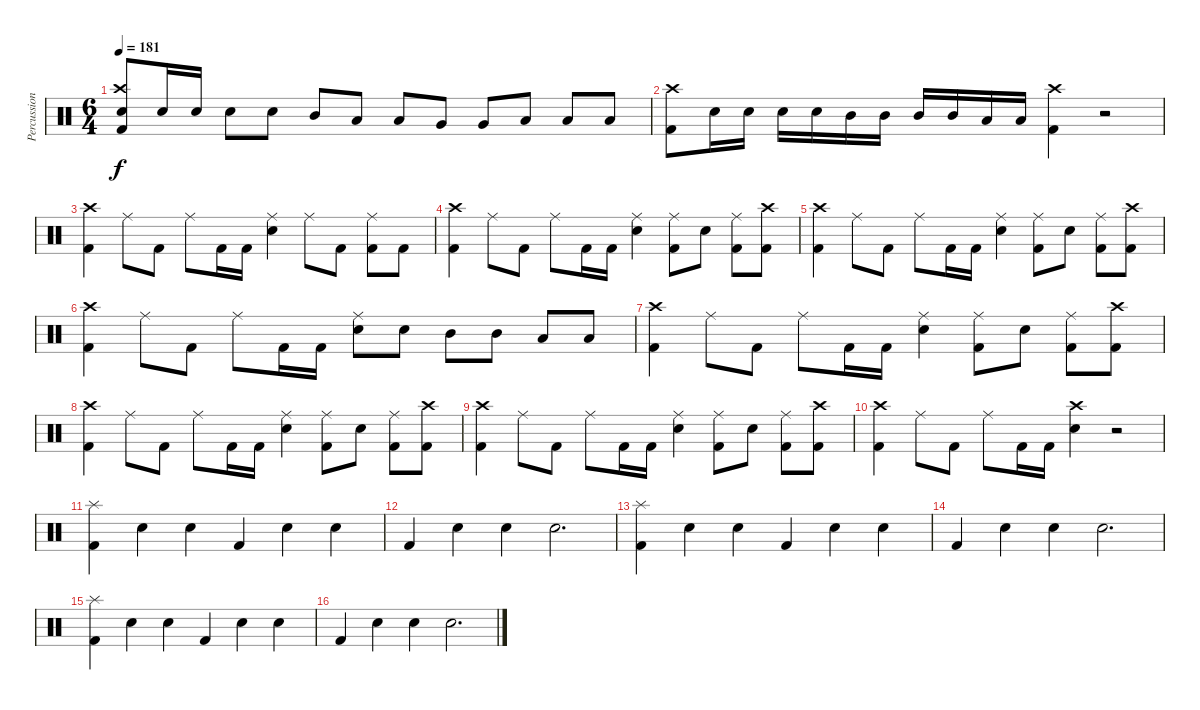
\track ("Percussion" "Percussion") {instrument percussion}
\staff {score}
\articulation defaults
\ts (6 4)
\tempo 181
\clef neutral
\ks c
("Kick (hit) 2" "Crash high (hit)" "Electric Snare (hit)").8{dy f} "Electric Snare (hit)".16 "Electric Snare (hit)".16 "Electric Snare (hit)".8 "Electric Snare (hit)".8 "Mid Tom (hit)".8 "Low Tom (hit)".8 "Low Tom (hit)".8 "Very Low Tom (hit)".8 "Very Low Tom (hit)".8 "Low Floor Tom (hit)".8 "Low Floor Tom (hit)".8 "Low Floor Tom (hit)".8 |
("Kick (hit) 2" "Crash high (hit)").8 "Electric Snare (hit)".16 "Electric Snare (hit)".16 "Electric Snare (hit)".16 "Electric Snare (hit)".16 "Mid Tom (hit)".16 "Mid Tom (hit)".16 "Mid Tom (hit)".16 "Mid Tom (hit)".16 "Low Tom (hit)".16 "Low Tom (hit)".16 ("Kick (hit) 2" "Crash high (hit)").4 r.2 |
("Kick (hit) 2" "Crash high (hit)").4 "Ride (middle)".8 "Kick (hit) 2".8 "Ride (middle)".8 "Kick (hit) 2".16 "Kick (hit) 2".16 ("Electric Snare (hit)" "Ride (middle)").4 "Ride (middle)".8 "Kick (hit) 2".8 ("Kick (hit) 2" "Ride (middle)").8 "Kick (hit) 2".8 |
("Kick (hit) 2" "Crash high (hit)").4 "Ride (middle)".8 "Kick (hit) 2".8 "Ride (middle)".8 "Kick (hit) 2".16 "Kick (hit) 2".16 ("Electric Snare (hit)" "Ride (middle)").4 ("Ride (middle)" "Kick (hit) 2").8 "Electric Snare (hit)".8 ("Ride (middle)" "Kick (hit) 2").8 ("Kick (hit) 2" "Crash high (hit)").8 |
("Kick (hit) 2" "Crash high (hit)").4 "Ride (middle)".8 "Kick (hit) 2".8 "Ride (middle)".8 "Kick (hit) 2".16 "Kick (hit) 2".16 ("Electric Snare (hit)" "Ride (middle)").4 ("Ride (middle)" "Kick (hit) 2").8 "Electric Snare (hit)".8 ("Ride (middle)" "Kick (hit) 2").8 ("Kick (hit) 2" "Crash high (hit)").8 |
("Kick (hit) 2" "Crash high (hit)").4 "Ride (middle)".8 "Kick (hit) 2".8 "Ride (middle)".8 "Kick (hit) 2".16 "Kick (hit) 2".16 ("Electric Snare (hit)" "Ride (middle)").8 "Electric Snare (hit)".8 "Mid Tom (hit)".8 "Mid Tom (hit)".8 "Low Tom (hit)".8 "Low Tom (hit)".8 |
("Kick (hit) 2" "Crash high (hit)").4 "Ride (middle)".8 "Kick (hit) 2".8 "Ride (middle)".8 "Kick (hit) 2".16 "Kick (hit) 2".16 ("Electric Snare (hit)" "Ride (middle)").4 ("Ride (middle)" "Kick (hit) 2").8 "Electric Snare (hit)".8 ("Ride (middle)" "Kick (hit) 2").8 ("Kick (hit) 2" "Crash high (hit)").8 |
("Kick (hit) 2" "Crash high (hit)").4 "Ride (middle)".8 "Kick (hit) 2".8 "Ride (middle)".8 "Kick (hit) 2".16 "Kick (hit) 2".16 ("Electric Snare (hit)" "Ride (middle)").4 ("Ride (middle)" "Kick (hit) 2").8 "Electric Snare (hit)".8 ("Ride (middle)" "Kick (hit) 2").8 ("Kick (hit) 2" "Crash high (hit)").8 |
("Kick (hit) 2" "Crash high (hit)").4 "Ride (middle)".8 "Kick (hit) 2".8 "Ride (middle)".8 "Kick (hit) 2".16 "Kick (hit) 2".16 ("Electric Snare (hit)" "Ride (middle)").4 ("Ride (middle)" "Kick (hit) 2").8 "Electric Snare (hit)".8 ("Ride (middle)" "Kick (hit) 2").8 ("Kick (hit) 2" "Crash high (hit)").8 |
("Kick (hit) 2" "Crash high (hit)").4 "Ride (middle)".8 "Kick (hit) 2".8 "Ride (middle)".8 "Kick (hit) 2".16 "Kick (hit) 2".16 ("Electric Snare (hit)" "Crash high (hit)").4 r.2 |
("Splash (hit)" "Kick (hit) 2").4 "Electric Snare (hit)".4 "Electric Snare (hit)".4 "Kick (hit) 2".4 "Electric Snare (hit)".4 "Electric Snare (hit)".4 |
"Kick (hit) 2".4 "Electric Snare (hit)".4 "Electric Snare (hit)".4 "Electric Snare (hit)".2{d} |
("Splash (hit)" "Kick (hit) 2").4 "Electric Snare (hit)".4 "Electric Snare (hit)".4 "Kick (hit) 2".4 "Electric Snare (hit)".4 "Electric Snare (hit)".4 |
"Kick (hit) 2".4 "Electric Snare (hit)".4 "Electric Snare (hit)".4 "Electric Snare (hit)".2{d} |
("Splash (hit)" "Kick (hit) 2").4 "Electric Snare (hit)".4 "Electric Snare (hit)".4 "Kick (hit) 2".4 "Electric Snare (hit)".4 "Electric Snare (hit)".4 |
"Kick (hit) 2".4 "Electric Snare (hit)".4 "Electric Snare (hit)".4 "Electric Snare (hit)".2{d}
